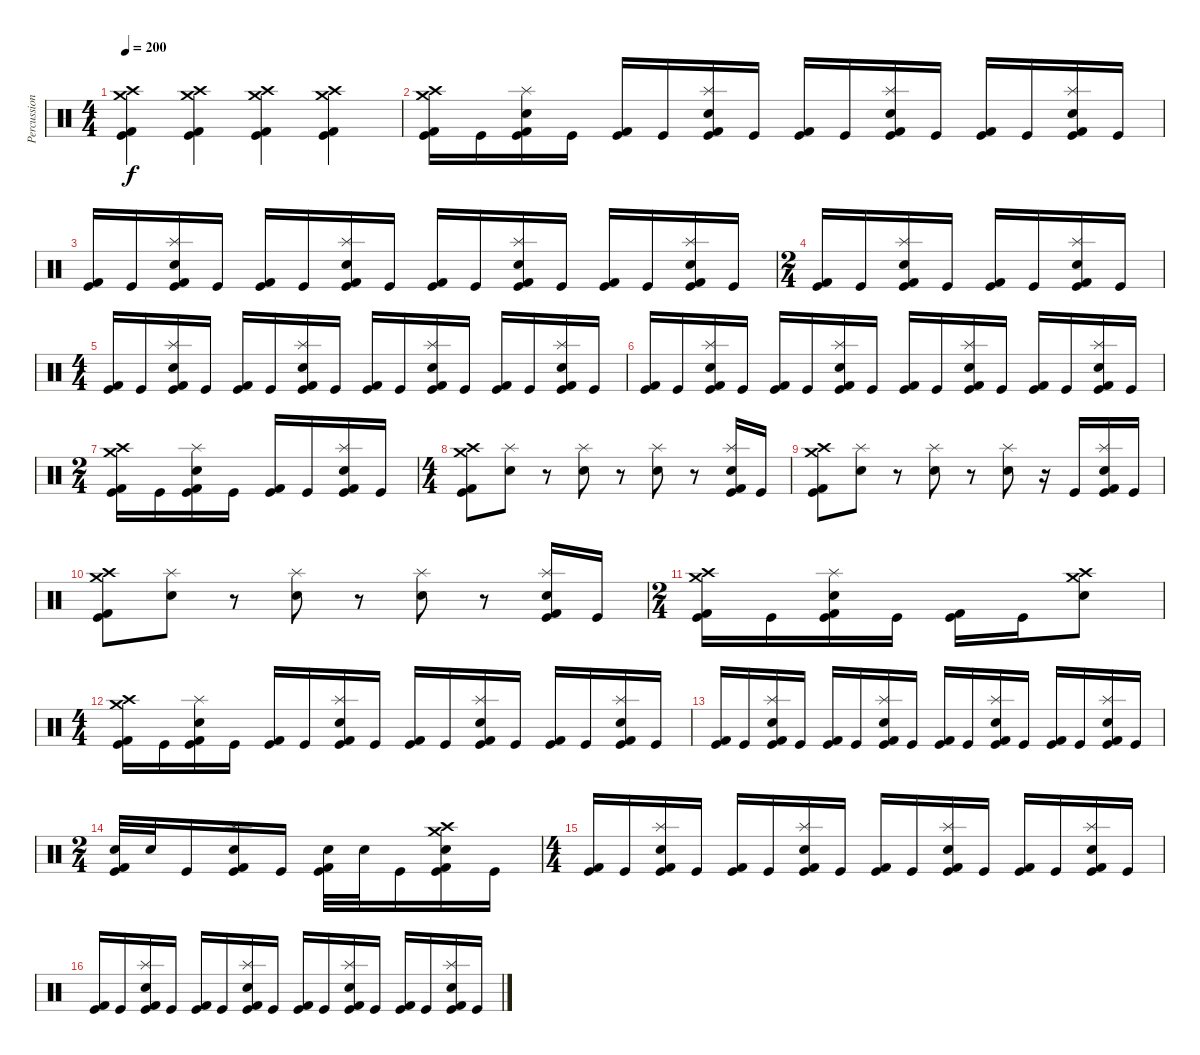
\track ("Percussion" "Percussion") {instrument percussion}
\staff {score}
\articulation defaults
\ts (4 4)
\tempo 200
\clef neutral
\ks c
("Crash high (hit)" "Crash medium (hit)" "Kick (hit) 2" "Kick (hit)").4{dy f} ("Crash high (hit)" "Crash medium (hit)" "Kick (hit) 2" "Kick (hit)").4 ("Crash high (hit)" "Crash medium (hit)" "Kick (hit) 2" "Kick (hit)").4 ("Crash high (hit)" "Crash medium (hit)" "Kick (hit) 2" "Kick (hit)").4 |
("Crash high (hit)" "Crash medium (hit)" "Kick (hit) 2" "Kick (hit)").16 "Kick (hit)".16 ("Splash (hit)" "Snare (hit) 2" "Kick (hit) 2" "Kick (hit)").16 "Kick (hit)".16 ("Kick (hit) 2" "Kick (hit)").16 "Kick (hit)".16 ("Splash (hit)" "Snare (hit) 2" "Kick (hit) 2" "Kick (hit)").16 "Kick (hit)".16 ("Kick (hit) 2" "Kick (hit)").16 "Kick (hit)".16 ("Splash (hit)" "Snare (hit) 2" "Kick (hit) 2" "Kick (hit)").16 "Kick (hit)".16 ("Kick (hit) 2" "Kick (hit)").16 "Kick (hit)".16 ("Splash (hit)" "Snare (hit) 2" "Kick (hit) 2" "Kick (hit)").16 "Kick (hit)".16 |
("Kick (hit) 2" "Kick (hit)").16 "Kick (hit)".16 ("Splash (hit)" "Snare (hit) 2" "Kick (hit) 2" "Kick (hit)").16 "Kick (hit)".16 ("Kick (hit) 2" "Kick (hit)").16 "Kick (hit)".16 ("Splash (hit)" "Snare (hit) 2" "Kick (hit) 2" "Kick (hit)").16 "Kick (hit)".16 ("Kick (hit) 2" "Kick (hit)").16 "Kick (hit)".16 ("Splash (hit)" "Snare (hit) 2" "Kick (hit) 2" "Kick (hit)").16 "Kick (hit)".16 ("Kick (hit) 2" "Kick (hit)").16 "Kick (hit)".16 ("Splash (hit)" "Snare (hit) 2" "Kick (hit) 2" "Kick (hit)").16 "Kick (hit)".16 |
\ts (2 4)
("Kick (hit) 2" "Kick (hit)").16 "Kick (hit)".16 ("Splash (hit)" "Snare (hit) 2" "Kick (hit) 2" "Kick (hit)").16 "Kick (hit)".16 ("Kick (hit) 2" "Kick (hit)").16 "Kick (hit)".16 ("Splash (hit)" "Snare (hit) 2" "Kick (hit) 2" "Kick (hit)").16 "Kick (hit)".16 |
\ts (4 4)
("Kick (hit) 2" "Kick (hit)").16 "Kick (hit)".16 ("Splash (hit)" "Snare (hit) 2" "Kick (hit) 2" "Kick (hit)").16 "Kick (hit)".16 ("Kick (hit) 2" "Kick (hit)").16 "Kick (hit)".16 ("Splash (hit)" "Snare (hit) 2" "Kick (hit) 2" "Kick (hit)").16 "Kick (hit)".16 ("Kick (hit) 2" "Kick (hit)").16 "Kick (hit)".16 ("Splash (hit)" "Snare (hit) 2" "Kick (hit) 2" "Kick (hit)").16 "Kick (hit)".16 ("Kick (hit) 2" "Kick (hit)").16 "Kick (hit)".16 ("Splash (hit)" "Snare (hit) 2" "Kick (hit) 2" "Kick (hit)").16 "Kick (hit)".16 |
("Kick (hit) 2" "Kick (hit)").16 "Kick (hit)".16 ("Splash (hit)" "Snare (hit) 2" "Kick (hit) 2" "Kick (hit)").16 "Kick (hit)".16 ("Kick (hit) 2" "Kick (hit)").16 "Kick (hit)".16 ("Splash (hit)" "Snare (hit) 2" "Kick (hit) 2" "Kick (hit)").16 "Kick (hit)".16 ("Kick (hit) 2" "Kick (hit)").16 "Kick (hit)".16 ("Splash (hit)" "Snare (hit) 2" "Kick (hit) 2" "Kick (hit)").16 "Kick (hit)".16 ("Kick (hit) 2" "Kick (hit)").16 "Kick (hit)".16 ("Splash (hit)" "Snare (hit) 2" "Kick (hit) 2" "Kick (hit)").16 "Kick (hit)".16 |
\ts (2 4)
("Crash high (hit)" "Crash medium (hit)" "Kick (hit) 2" "Kick (hit)").16 "Kick (hit)".16 ("Splash (hit)" "Snare (hit) 2" "Kick (hit) 2" "Kick (hit)").16 "Kick (hit)".16 ("Kick (hit) 2" "Kick (hit)").16 "Kick (hit)".16 ("Splash (hit)" "Snare (hit) 2" "Kick (hit) 2" "Kick (hit)").16 "Kick (hit)".16 |
\ts (4 4)
("Crash high (hit)" "Crash medium (hit)" "Kick (hit) 2" "Kick (hit)").8 ("Splash (hit)" "Snare (hit) 2").8 r.8 ("Splash (hit)" "Snare (hit) 2").8 r.8 ("Splash (hit)" "Snare (hit) 2").8 r.8 ("Splash (hit)" "Snare (hit) 2" "Kick (hit) 2" "Kick (hit)").16 "Kick (hit)".16 |
("Crash high (hit)" "Crash medium (hit)" "Kick (hit) 2" "Kick (hit)").8 ("Splash (hit)" "Snare (hit) 2").8 r.8 ("Splash (hit)" "Snare (hit) 2").8 r.8 ("Splash (hit)" "Snare (hit) 2").8 r.16 "Kick (hit)".16 ("Splash (hit)" "Snare (hit) 2" "Kick (hit) 2" "Kick (hit)").16 "Kick (hit)".16 |
("Crash high (hit)" "Crash medium (hit)" "Kick (hit) 2" "Kick (hit)").8 ("Splash (hit)" "Snare (hit) 2").8 r.8 ("Splash (hit)" "Snare (hit) 2").8 r.8 ("Splash (hit)" "Snare (hit) 2").8 r.8 ("Splash (hit)" "Snare (hit) 2" "Kick (hit) 2" "Kick (hit)").16 "Kick (hit)".16 |
\ts (2 4)
("Crash high (hit)" "Crash medium (hit)" "Kick (hit) 2" "Kick (hit)").16 "Kick (hit)".16 ("Splash (hit)" "Snare (hit) 2" "Kick (hit) 2" "Kick (hit)").16 "Kick (hit)".16 ("Kick (hit) 2" "Kick (hit)").16 "Kick (hit)".16 ("Crash high (hit)" "Crash medium (hit)" "Snare (hit) 2").8 |
\ts (4 4)
("Crash high (hit)" "Crash medium (hit)" "Kick (hit) 2" "Kick (hit)").16 "Kick (hit)".16 ("Splash (hit)" "Snare (hit) 2" "Kick (hit) 2" "Kick (hit)").16 "Kick (hit)".16 ("Kick (hit) 2" "Kick (hit)").16 "Kick (hit)".16 ("Splash (hit)" "Snare (hit) 2" "Kick (hit) 2" "Kick (hit)").16 "Kick (hit)".16 ("Kick (hit) 2" "Kick (hit)").16 "Kick (hit)".16 ("Splash (hit)" "Snare (hit) 2" "Kick (hit) 2" "Kick (hit)").16 "Kick (hit)".16 ("Kick (hit) 2" "Kick (hit)").16 "Kick (hit)".16 ("Splash (hit)" "Snare (hit) 2" "Kick (hit) 2" "Kick (hit)").16 "Kick (hit)".16 |
("Kick (hit) 2" "Kick (hit)").16 "Kick (hit)".16 ("Splash (hit)" "Snare (hit) 2" "Kick (hit) 2" "Kick (hit)").16 "Kick (hit)".16 ("Kick (hit) 2" "Kick (hit)").16 "Kick (hit)".16 ("Splash (hit)" "Snare (hit) 2" "Kick (hit) 2" "Kick (hit)").16 "Kick (hit)".16 ("Kick (hit) 2" "Kick (hit)").16 "Kick (hit)".16 ("Splash (hit)" "Snare (hit) 2" "Kick (hit) 2" "Kick (hit)").16 "Kick (hit)".16 ("Kick (hit) 2" "Kick (hit)").16 "Kick (hit)".16 ("Splash (hit)" "Snare (hit) 2" "Kick (hit) 2" "Kick (hit)").16 "Kick (hit)".16 |
\ts (2 4)
("Snare (hit) 2" "Kick (hit) 2" "Kick (hit)").32 "Snare (hit) 2".32 "Kick (hit)".16 ("Splash (hit)" "Snare (hit) 2" "Kick (hit) 2" "Kick (hit)").16 "Kick (hit)".16 ("Snare (hit) 2" "Kick (hit) 2" "Kick (hit)").32 "Snare (hit) 2".32 "Kick (hit)".16 ("Crash high (hit)" "Crash medium (hit)" "Snare (hit) 2" "Kick (hit) 2" "Kick (hit)").16 "Kick (hit)".16 |
\ts (4 4)
("Kick (hit) 2" "Kick (hit)").16 "Kick (hit)".16 ("Splash (hit)" "Snare (hit) 2" "Kick (hit) 2" "Kick (hit)").16 "Kick (hit)".16 ("Kick (hit) 2" "Kick (hit)").16 "Kick (hit)".16 ("Splash (hit)" "Snare (hit) 2" "Kick (hit) 2" "Kick (hit)").16 "Kick (hit)".16 ("Kick (hit) 2" "Kick (hit)").16 "Kick (hit)".16 ("Splash (hit)" "Snare (hit) 2" "Kick (hit) 2" "Kick (hit)").16 "Kick (hit)".16 ("Kick (hit) 2" "Kick (hit)").16 "Kick (hit)".16 ("Splash (hit)" "Snare (hit) 2" "Kick (hit) 2" "Kick (hit)").16 "Kick (hit)".16 |
("Kick (hit) 2" "Kick (hit)").16 "Kick (hit)".16 ("Splash (hit)" "Snare (hit) 2" "Kick (hit) 2" "Kick (hit)").16 "Kick (hit)".16 ("Kick (hit) 2" "Kick (hit)").16 "Kick (hit)".16 ("Splash (hit)" "Snare (hit) 2" "Kick (hit) 2" "Kick (hit)").16 "Kick (hit)".16 ("Kick (hit) 2" "Kick (hit)").16 "Kick (hit)".16 ("Splash (hit)" "Snare (hit) 2" "Kick (hit) 2" "Kick (hit)").16 "Kick (hit)".16 ("Kick (hit) 2" "Kick (hit)").16 "Kick (hit)".16 ("Splash (hit)" "Snare (hit) 2" "Kick (hit) 2" "Kick (hit)").16 "Kick (hit)".16
